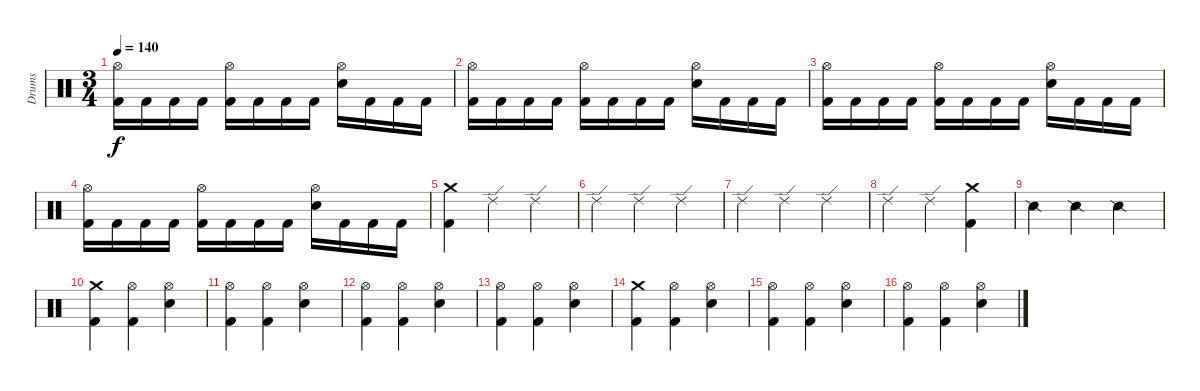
\track ("Drums" "Drums") {instrument percussion}
\staff {score}
\articulation defaults
\ts (3 4)
\tempo 140
\clef neutral
\ks c
("Kick (hit) 2" "Hi-Hat (open)").16{dy f} "Kick (hit) 2".16 "Kick (hit) 2".16 "Kick (hit) 2".16 ("Kick (hit) 2" "Hi-Hat (open)").16 "Kick (hit) 2".16 "Kick (hit) 2".16 "Kick (hit) 2".16 ("Electric Snare (hit)" "Hi-Hat (open)").16 "Kick (hit) 2".16 "Kick (hit) 2".16 "Kick (hit) 2".16 |
("Kick (hit) 2" "Hi-Hat (open)").16 "Kick (hit) 2".16 "Kick (hit) 2".16 "Kick (hit) 2".16 ("Kick (hit) 2" "Hi-Hat (open)").16 "Kick (hit) 2".16 "Kick (hit) 2".16 "Kick (hit) 2".16 ("Electric Snare (hit)" "Hi-Hat (open)").16 "Kick (hit) 2".16 "Kick (hit) 2".16 "Kick (hit) 2".16 |
("Kick (hit) 2" "Hi-Hat (open)").16 "Kick (hit) 2".16 "Kick (hit) 2".16 "Kick (hit) 2".16 ("Kick (hit) 2" "Hi-Hat (open)").16 "Kick (hit) 2".16 "Kick (hit) 2".16 "Kick (hit) 2".16 ("Electric Snare (hit)" "Hi-Hat (open)").16 "Kick (hit) 2".16 "Kick (hit) 2".16 "Kick (hit) 2".16 |
("Kick (hit) 2" "Hi-Hat (open)").16 "Kick (hit) 2".16 "Kick (hit) 2".16 "Kick (hit) 2".16 ("Kick (hit) 2" "Hi-Hat (open)").16 "Kick (hit) 2".16 "Kick (hit) 2".16 "Kick (hit) 2".16 ("Electric Snare (hit)" "Hi-Hat (open)").16 "Kick (hit) 2".16 "Kick (hit) 2".16 "Kick (hit) 2".16 |
("Kick (hit) 2" "Crash medium (hit)").4 "Ride (edge) 2".4 "Ride (edge) 2".4 |
"Ride (edge) 2".4 "Ride (edge) 2".4 "Ride (edge) 2".4 |
"Ride (edge) 2".4 "Ride (edge) 2".4 "Ride (edge) 2".4 |
"Ride (edge) 2".4 "Ride (edge) 2".4 ("Kick (hit) 2" "Crash medium (hit)").4 |
"Snare (side stick) 2".4 "Snare (side stick) 2".4 "Snare (side stick) 2".4 |
("Kick (hit) 2" "Crash medium (hit)").4 ("Kick (hit) 2" "Hi-Hat (open)").4 ("Hi-Hat (open)" "Electric Snare (hit)").4 |
("Kick (hit) 2" "Hi-Hat (open)").4 ("Kick (hit) 2" "Hi-Hat (open)").4 ("Hi-Hat (open)" "Electric Snare (hit)").4 |
("Kick (hit) 2" "Hi-Hat (open)").4 ("Kick (hit) 2" "Hi-Hat (open)").4 ("Hi-Hat (open)" "Electric Snare (hit)").4 |
("Kick (hit) 2" "Hi-Hat (open)").4 ("Kick (hit) 2" "Hi-Hat (open)").4 ("Hi-Hat (open)" "Electric Snare (hit)").4 |
("Kick (hit) 2" "Crash medium (hit)").4 ("Kick (hit) 2" "Hi-Hat (open)").4 ("Hi-Hat (open)" "Electric Snare (hit)").4 |
("Kick (hit) 2" "Hi-Hat (open)").4 ("Kick (hit) 2" "Hi-Hat (open)").4 ("Hi-Hat (open)" "Electric Snare (hit)").4 |
("Kick (hit) 2" "Hi-Hat (open)").4 ("Kick (hit) 2" "Hi-Hat (open)").4 ("Hi-Hat (open)" "Electric Snare (hit)").4
